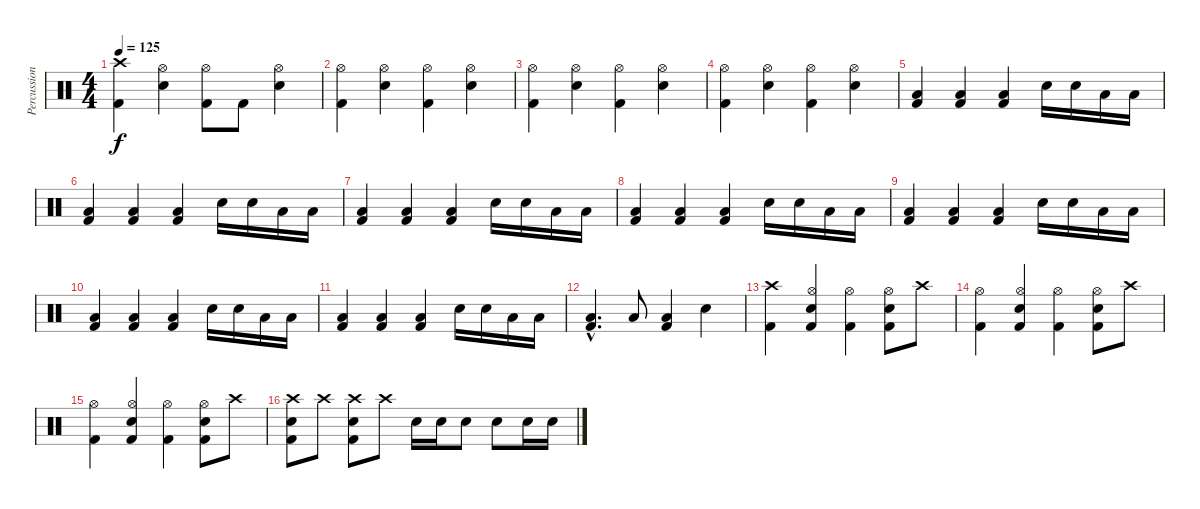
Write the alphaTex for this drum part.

\track ("Percussion" "Percussion") {instrument percussion}
\staff {score}
\articulation defaults
\ts (4 4)
\tempo 125
\clef neutral
\ks c
("Crash high (hit)" "Kick (hit) 2").4{dy f} ("Hi-Hat (open)" "Snare (hit) 2").4 ("Hi-Hat (open)" "Kick (hit) 2").8 "Kick (hit) 2".8 ("Hi-Hat (open)" "Snare (hit) 2").4 |
("Hi-Hat (open)" "Kick (hit) 2").4 ("Hi-Hat (open)" "Snare (hit) 2").4 ("Hi-Hat (open)" "Kick (hit) 2").4 ("Hi-Hat (open)" "Snare (hit) 2").4 |
("Hi-Hat (open)" "Kick (hit) 2").4 ("Hi-Hat (open)" "Snare (hit) 2").4 ("Hi-Hat (open)" "Kick (hit) 2").4 ("Hi-Hat (open)" "Snare (hit) 2").4 |
("Hi-Hat (open)" "Kick (hit) 2").4 ("Hi-Hat (open)" "Snare (hit) 2").4 ("Hi-Hat (open)" "Kick (hit) 2").4 ("Hi-Hat (open)" "Snare (hit) 2").4 |
("Low Floor Tom (hit)" "Kick (hit) 2").4 ("Low Floor Tom (hit)" "Kick (hit) 2").4 ("Low Floor Tom (hit)" "Kick (hit) 2").4 "Snare (hit) 2".16 "Snare (hit) 2".16 "Low Tom (hit)".16 "Low Tom (hit)".16 |
("Low Floor Tom (hit)" "Kick (hit) 2").4 ("Low Floor Tom (hit)" "Kick (hit) 2").4 ("Low Floor Tom (hit)" "Kick (hit) 2").4 "Snare (hit) 2".16 "Snare (hit) 2".16 "Low Tom (hit)".16 "Low Tom (hit)".16 |
("Low Floor Tom (hit)" "Kick (hit) 2").4 ("Low Floor Tom (hit)" "Kick (hit) 2").4 ("Low Floor Tom (hit)" "Kick (hit) 2").4 "Snare (hit) 2".16 "Snare (hit) 2".16 "Low Tom (hit)".16 "Low Tom (hit)".16 |
("Low Floor Tom (hit)" "Kick (hit) 2").4 ("Low Floor Tom (hit)" "Kick (hit) 2").4 ("Low Floor Tom (hit)" "Kick (hit) 2").4 "Snare (hit) 2".16 "Snare (hit) 2".16 "Low Tom (hit)".16 "Low Tom (hit)".16 |
("Low Floor Tom (hit)" "Kick (hit) 2").4 ("Low Floor Tom (hit)" "Kick (hit) 2").4 ("Low Floor Tom (hit)" "Kick (hit) 2").4 "Snare (hit) 2".16 "Snare (hit) 2".16 "Low Tom (hit)".16 "Low Tom (hit)".16 |
("Low Floor Tom (hit)" "Kick (hit) 2").4 ("Low Floor Tom (hit)" "Kick (hit) 2").4 ("Low Floor Tom (hit)" "Kick (hit) 2").4 "Snare (hit) 2".16 "Snare (hit) 2".16 "Low Tom (hit)".16 "Low Tom (hit)".16 |
("Low Floor Tom (hit)" "Kick (hit) 2").4 ("Low Floor Tom (hit)" "Kick (hit) 2").4 ("Low Floor Tom (hit)" "Kick (hit) 2").4 "Snare (hit) 2".16 "Snare (hit) 2".16 "Low Tom (hit)".16 "Low Tom (hit)".16 |
("Low Floor Tom (hit)"{hac} "Kick (hit) 2"{hac}).4{d} "Low Tom (hit)".8 ("Low Floor Tom (hit)" "Kick (hit) 2").4 "Snare (hit) 2".4 |
("Crash high (hit)" "Kick (hit) 2").4 ("Hi-Hat (open)" "Snare (hit) 2" "Kick (hit) 2").4 ("Hi-Hat (open)" "Kick (hit) 2").4 ("Hi-Hat (open)" "Snare (hit) 2" "Kick (hit) 2").8 "Crash high (hit)".8 |
("Hi-Hat (open)" "Kick (hit) 2").4 ("Hi-Hat (open)" "Snare (hit) 2" "Kick (hit) 2").4 ("Hi-Hat (open)" "Kick (hit) 2").4 ("Hi-Hat (open)" "Snare (hit) 2" "Kick (hit) 2").8 "Crash high (hit)".8 |
("Hi-Hat (open)" "Kick (hit) 2").4 ("Hi-Hat (open)" "Snare (hit) 2" "Kick (hit) 2").4 ("Hi-Hat (open)" "Kick (hit) 2").4 ("Hi-Hat (open)" "Snare (hit) 2" "Kick (hit) 2").8 "Crash high (hit)".8 |
("Crash high (hit)" "Snare (hit) 2" "Kick (hit) 2").8 "Crash high (hit)".8 ("Crash high (hit)" "Snare (hit) 2" "Kick (hit) 2").8 "Crash high (hit)".8 "Snare (hit) 2".16 "Snare (hit) 2".16 "Snare (hit) 2".8 "Snare (hit) 2".8 "Snare (hit) 2".16 "Snare (hit) 2".16
